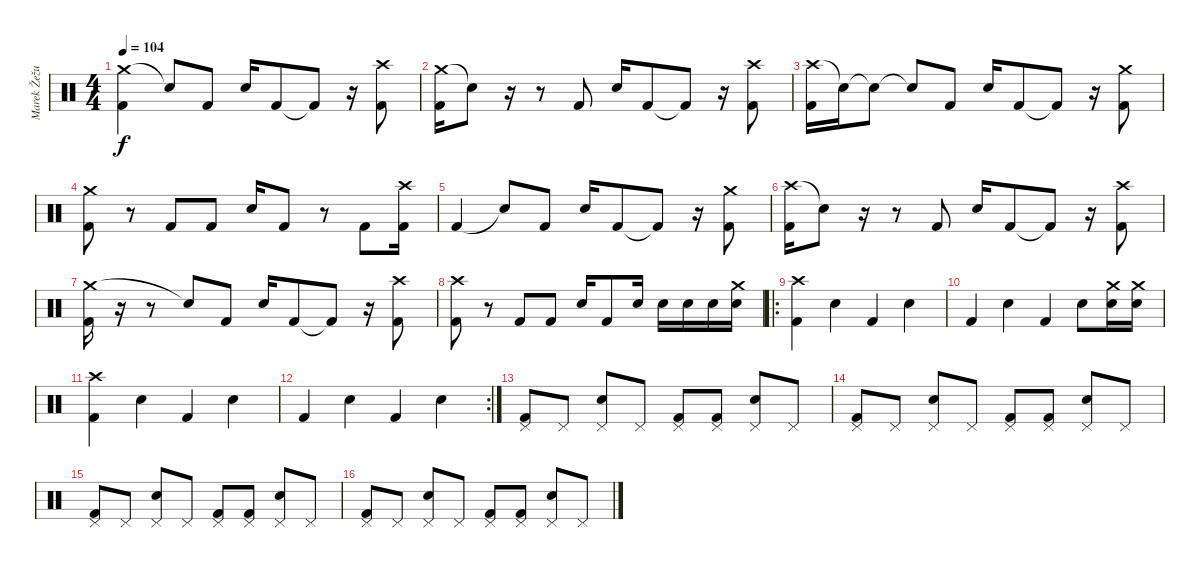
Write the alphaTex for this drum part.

\track ("Marek Žežulka" "Marek Žežu") {instrument percussion}
\staff {score}
\articulation defaults
\ts (4 4)
\tempo 104
\clef neutral
\ks c
("Crash medium (hit)" "Kick (hit) 2").4{dy f} "Snare (hit)"{t}.8 "Kick (hit) 2".8 "Electric Snare (hit)".16 "Kick (hit) 2".8 "Kick (hit) 2"{t}.8 r.16 ("Crash high (hit)" "Kick (hit) 2").8 |
("Crash medium (hit)" "Kick (hit) 2").16 "Snare (hit)"{t}.8 r.16 r.8 "Kick (hit) 2".8 "Electric Snare (hit)".16 "Kick (hit) 2".8 "Kick (hit) 2"{t}.8 r.16 ("Crash high (hit)" "Kick (hit) 2").8 |
("Crash high (hit)" "Kick (hit) 2").16 "Snare (hit)"{t}.16 "Snare (hit)"{t}.8 "Snare (hit)"{t}.8 "Kick (hit) 2".8 "Electric Snare (hit)".16 "Kick (hit) 2".8 "Kick (hit) 2"{t}.8 r.16 ("Crash medium (hit)" "Kick (hit) 2").8 |
("Crash medium (hit)" "Kick (hit) 2").8 r.8 "Kick (hit) 2".8 "Kick (hit) 2".8 "Electric Snare (hit)".16 "Kick (hit) 2".8 r.8 "Kick (hit) 2".8 ("Crash high (hit)" "Kick (hit) 2").16 |
"Kick (hit) 2".4 "Snare (hit)"{t}.8 "Kick (hit) 2".8 "Electric Snare (hit)".16 "Kick (hit) 2".8 "Kick (hit) 2"{t}.8 r.16 ("Crash medium (hit)" "Kick (hit) 2").8 |
("Crash high (hit)" "Kick (hit) 2").16 "Snare (hit)"{t}.8 r.16 r.8 "Kick (hit) 2".8 "Electric Snare (hit)".16 "Kick (hit) 2".8 "Kick (hit) 2"{t}.8 r.16 ("Crash high (hit)" "Kick (hit) 2").8 |
("Crash medium (hit)" "Kick (hit) 2").16 r.16 r.8 "Snare (hit)"{t}.8 "Kick (hit) 2".8 "Electric Snare (hit)".16 "Kick (hit) 2".8 "Kick (hit) 2"{t}.8 r.16 ("Crash high (hit)" "Kick (hit) 2").8 |
("Crash high (hit)" "Kick (hit) 2").8 r.8 "Kick (hit) 2".8 "Kick (hit) 2".8 "Electric Snare (hit)".16 "Kick (hit) 2".8 "Electric Snare (hit)".16 "Electric Snare (hit)".16 "Electric Snare (hit)".16 "Electric Snare (hit)".16 ("Crash medium (hit)" "Electric Snare (hit)").16 |
\ro
("Crash high (hit)" "Kick (hit) 2").4 "Electric Snare (hit)".4 "Kick (hit) 2".4 "Electric Snare (hit)".4 |
"Kick (hit) 2".4 "Electric Snare (hit)".4 "Kick (hit) 2".4 "Electric Snare (hit)".8 ("Crash medium (hit)" "Electric Snare (hit)").16 ("Crash medium (hit)" "Electric Snare (hit)").16 |
("Crash high (hit)" "Kick (hit) 2").4 "Electric Snare (hit)".4 "Kick (hit) 2".4 "Electric Snare (hit)".4 |
\rc 2 "Kick (hit) 2".4 "Electric Snare (hit)".4 "Kick (hit) 2".4 "Electric Snare (hit)".4
|
("Pedal Hi-Hat (hit)" "Kick (hit) 2").8 "Pedal Hi-Hat (hit)".8 ("Pedal Hi-Hat (hit)" "Electric Snare (hit)").8 "Pedal Hi-Hat (hit)".8 ("Pedal Hi-Hat (hit)" "Kick (hit) 2").8 ("Pedal Hi-Hat (hit)" "Kick (hit) 2").8 ("Pedal Hi-Hat (hit)" "Electric Snare (hit)").8 "Pedal Hi-Hat (hit)".8 |
("Pedal Hi-Hat (hit)" "Kick (hit) 2").8 "Pedal Hi-Hat (hit)".8 ("Pedal Hi-Hat (hit)" "Electric Snare (hit)").8 "Pedal Hi-Hat (hit)".8 ("Pedal Hi-Hat (hit)" "Kick (hit) 2").8 ("Pedal Hi-Hat (hit)" "Kick (hit) 2").8 ("Pedal Hi-Hat (hit)" "Electric Snare (hit)").8 "Pedal Hi-Hat (hit)".8 |
("Pedal Hi-Hat (hit)" "Kick (hit) 2").8 "Pedal Hi-Hat (hit)".8 ("Pedal Hi-Hat (hit)" "Electric Snare (hit)").8 "Pedal Hi-Hat (hit)".8 ("Pedal Hi-Hat (hit)" "Kick (hit) 2").8 ("Pedal Hi-Hat (hit)" "Kick (hit) 2").8 ("Pedal Hi-Hat (hit)" "Electric Snare (hit)").8 "Pedal Hi-Hat (hit)".8 |
("Pedal Hi-Hat (hit)" "Kick (hit) 2").8 "Pedal Hi-Hat (hit)".8 ("Pedal Hi-Hat (hit)" "Electric Snare (hit)").8 "Pedal Hi-Hat (hit)".8 ("Pedal Hi-Hat (hit)" "Kick (hit) 2").8 ("Pedal Hi-Hat (hit)" "Kick (hit) 2").8 ("Pedal Hi-Hat (hit)" "Electric Snare (hit)").8 "Pedal Hi-Hat (hit)".8
